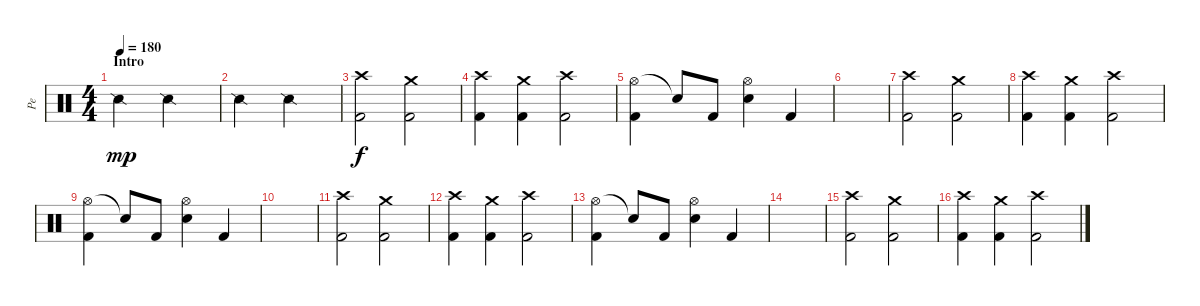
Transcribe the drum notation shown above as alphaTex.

\track ("Pe" "Pe") {instrument percussion}
\staff {score}
\articulation defaults
\ts (4 4)
\section ("" "Intro")
\tempo 180
\clef neutral
\ks c "Snare (side stick) 2".2{dy mp} "Snare (side stick) 2".2
|
"Snare (side stick) 2".2 "Snare (side stick) 2".2 |
("Crash high (hit)" "Kick (hit) 2").2{dy f} ("Crash medium (hit)" "Kick (hit) 2").2 |
("Crash high (hit)" "Kick (hit) 2").4 ("Crash medium (hit)" "Kick (hit) 2").4 ("Crash high (hit)" "Kick (hit) 2").2 |
("Hi-Hat (open)" "Kick (hit) 2").4 "Snare (hit)"{t}.8 "Kick (hit) 2".8 ("Hi-Hat (open)" "Electric Snare (hit)").4 "Kick (hit) 2".4 |
|
("Crash high (hit)" "Kick (hit) 2").2 ("Crash medium (hit)" "Kick (hit) 2").2 |
("Crash high (hit)" "Kick (hit) 2").4 ("Crash medium (hit)" "Kick (hit) 2").4 ("Crash high (hit)" "Kick (hit) 2").2 |
("Hi-Hat (open)" "Kick (hit) 2").4 "Snare (hit)"{t}.8 "Kick (hit) 2".8 ("Hi-Hat (open)" "Electric Snare (hit)").4 "Kick (hit) 2".4 |
|
("Crash high (hit)" "Kick (hit) 2").2 ("Crash medium (hit)" "Kick (hit) 2").2 |
("Crash high (hit)" "Kick (hit) 2").4 ("Crash medium (hit)" "Kick (hit) 2").4 ("Crash high (hit)" "Kick (hit) 2").2 |
("Hi-Hat (open)" "Kick (hit) 2").4 "Snare (hit)"{t}.8 "Kick (hit) 2".8 ("Hi-Hat (open)" "Electric Snare (hit)").4 "Kick (hit) 2".4 |
|
("Crash high (hit)" "Kick (hit) 2").2 ("Crash medium (hit)" "Kick (hit) 2").2 |
("Crash high (hit)" "Kick (hit) 2").4 ("Crash medium (hit)" "Kick (hit) 2").4 ("Crash high (hit)" "Kick (hit) 2").2
